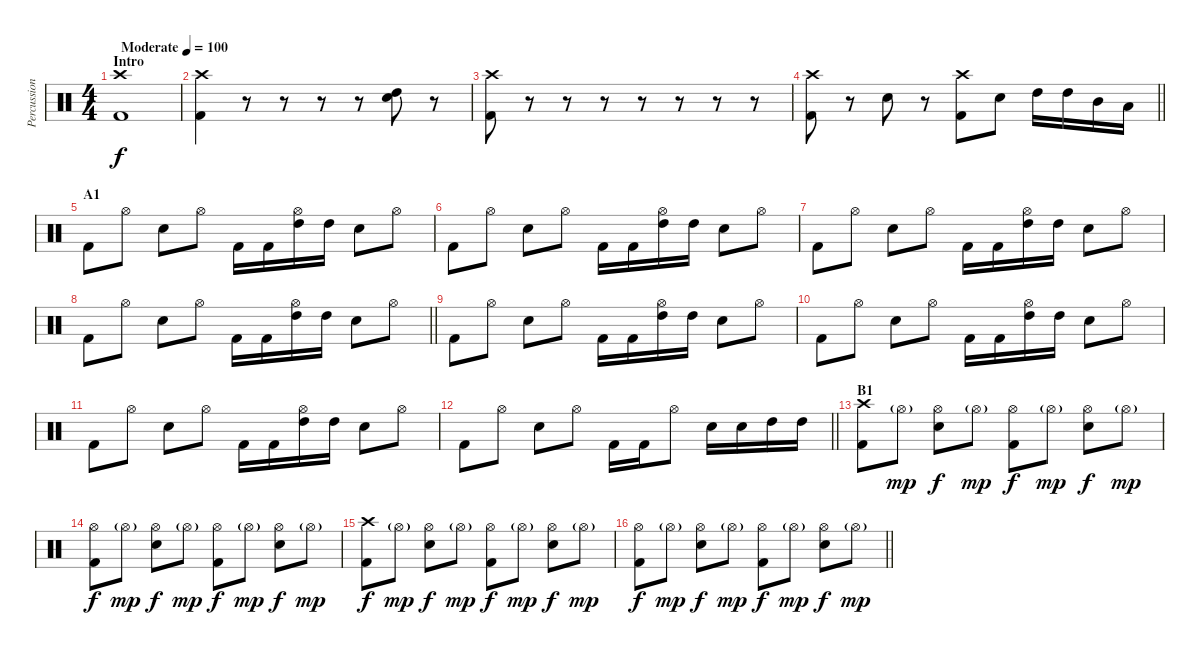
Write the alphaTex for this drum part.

\track ("Percussion" "Percussion") {instrument percussion}
\staff {score}
\articulation defaults
\ts (4 4)
\section ("" "Intro")
\tempo (100 "Moderate")
\clef neutral
\ks c
("Crash high (hit)" "Kick (hit) 2").1{dy f} |
("Crash high (hit)" "Kick (hit) 2").4 r.8 r.8 r.8 r.8 ("High Tom (hit)" "Snare (hit) 2").8 r.8 |
("Crash high (hit)" "Kick (hit) 2").8 r.8 r.8 r.8 r.8 r.8 r.8 r.8 |
\barLineRight lightlight
("Crash high (hit)" "Kick (hit) 2").8 r.8 "Snare (hit) 2".8 r.8 ("Crash high (hit)" "Kick (hit) 2").8 "Snare (hit) 2".8 "High Tom (hit)".16 "High Tom (hit)".16 "Mid Tom (hit)".16 "Low Tom (hit)".16 |
\section ("" "A1")
"Kick (hit) 2".8 "Hi-Hat (open)".8 "Snare (hit) 2".8 "Hi-Hat (open)".8 "Kick (hit) 2".16 "Kick (hit) 2".16 ("Hi-Hat (open)" "High Tom (hit)").16 "High Tom (hit)".16 "Snare (hit) 2".8 "Hi-Hat (open)".8 |
"Kick (hit) 2".8 "Hi-Hat (open)".8 "Snare (hit) 2".8 "Hi-Hat (open)".8 "Kick (hit) 2".16 "Kick (hit) 2".16 ("Hi-Hat (open)" "High Tom (hit)").16 "High Tom (hit)".16 "Snare (hit) 2".8 "Hi-Hat (open)".8 |
"Kick (hit) 2".8 "Hi-Hat (open)".8 "Snare (hit) 2".8 "Hi-Hat (open)".8 "Kick (hit) 2".16 "Kick (hit) 2".16 ("Hi-Hat (open)" "High Tom (hit)").16 "High Tom (hit)".16 "Snare (hit) 2".8 "Hi-Hat (open)".8 |
\barLineRight lightlight "Kick (hit) 2".8 "Hi-Hat (open)".8 "Snare (hit) 2".8 "Hi-Hat (open)".8 "Kick (hit) 2".16 "Kick (hit) 2".16
("Hi-Hat (open)" "High Tom (hit)").16 "High Tom (hit)".16 "Snare (hit) 2".8 "Hi-Hat (open)".8 |
"Kick (hit) 2".8 "Hi-Hat (open)".8 "Snare (hit) 2".8 "Hi-Hat (open)".8 "Kick (hit) 2".16 "Kick (hit) 2".16 ("Hi-Hat (open)" "High Tom (hit)").16 "High Tom (hit)".16 "Snare (hit) 2".8 "Hi-Hat (open)".8 |
"Kick (hit) 2".8 "Hi-Hat (open)".8 "Snare (hit) 2".8 "Hi-Hat (open)".8 "Kick (hit) 2".16 "Kick (hit) 2".16 ("Hi-Hat (open)" "High Tom (hit)").16 "High Tom (hit)".16 "Snare (hit) 2".8 "Hi-Hat (open)".8 |
"Kick (hit) 2".8 "Hi-Hat (open)".8 "Snare (hit) 2".8 "Hi-Hat (open)".8 "Kick (hit) 2".16 "Kick (hit) 2".16 ("Hi-Hat (open)" "High Tom (hit)").16 "High Tom (hit)".16 "Snare (hit) 2".8 "Hi-Hat (open)".8 |
\barLineRight lightlight "Kick (hit) 2".8 "Hi-Hat (open)".8 "Snare (hit) 2".8 "Hi-Hat (open)".8 "Kick (hit) 2".16 "Kick (hit) 2".16 "Hi-Hat (open)".8 "Snare (hit) 2".16 "Snare (hit) 2".16 "High Tom (hit)".16 "High Tom (hit)".16
|
\section ("" "B1")
("Crash high (hit)" "Kick (hit) 2").8 "Hi-Hat (open)"{g}.8{dy mp} ("Hi-Hat (open)" "Snare (hit) 2").8{dy f} "Hi-Hat (open)"{g}.8{dy mp} ("Hi-Hat (open)" "Kick (hit) 2").8{dy f} "Hi-Hat (open)"{g}.8{dy mp} ("Hi-Hat (open)" "Snare (hit) 2").8{dy f} "Hi-Hat (open)"{g}.8{dy mp} |
("Hi-Hat (open)" "Kick (hit) 2").8{dy f} "Hi-Hat (open)"{g}.8{dy mp} ("Hi-Hat (open)" "Snare (hit) 2").8{dy f} "Hi-Hat (open)"{g}.8{dy mp} ("Hi-Hat (open)" "Kick (hit) 2").8{dy f} "Hi-Hat (open)"{g}.8{dy mp} ("Hi-Hat (open)" "Snare (hit) 2").8{dy f} "Hi-Hat (open)"{g}.8{dy mp} |
("Crash high (hit)" "Kick (hit) 2").8{dy f} "Hi-Hat (open)"{g}.8{dy mp} ("Hi-Hat (open)" "Snare (hit) 2").8{dy f} "Hi-Hat (open)"{g}.8{dy mp} ("Hi-Hat (open)" "Kick (hit) 2").8{dy f} "Hi-Hat (open)"{g}.8{dy mp} ("Hi-Hat (open)" "Snare (hit) 2").8{dy f} "Hi-Hat (open)"{g}.8{dy mp} |
\barLineRight lightlight
("Hi-Hat (open)" "Kick (hit) 2").8{dy f} "Hi-Hat (open)"{g}.8{dy mp} ("Hi-Hat (open)" "Snare (hit) 2").8{dy f} "Hi-Hat (open)"{g}.8{dy mp} ("Hi-Hat (open)" "Kick (hit) 2").8{dy f} "Hi-Hat (open)"{g}.8{dy mp} ("Hi-Hat (open)" "Snare (hit) 2").8{dy f} "Hi-Hat (open)"{g}.8{dy mp}
